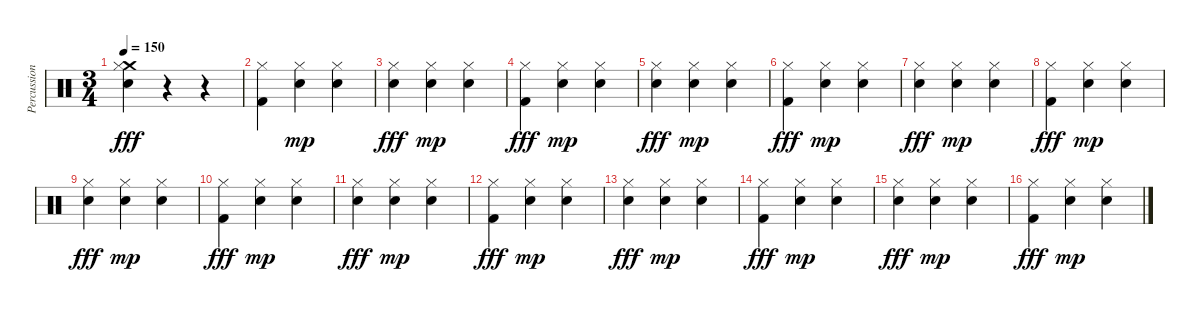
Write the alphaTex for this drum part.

\track ("Percussion" "Percussion") {instrument percussion}
\staff {score}
\articulation defaults
\ts (3 4)
\tempo 150
\clef neutral
\ks c
("Crash medium (hit)" "Hi-Hat (closed)" "Electric Snare (hit)").4{dy fff} r.4 r.4 |
("Hi-Hat (closed)" "Kick (hit) 2").4 ("Hi-Hat (closed)" "Electric Snare (hit)").4{dy mp} ("Hi-Hat (closed)" "Electric Snare (hit)").4 |
("Hi-Hat (closed)" "Electric Snare (hit)").4{dy fff} ("Hi-Hat (closed)" "Electric Snare (hit)").4{dy mp} ("Hi-Hat (closed)" "Electric Snare (hit)").4 |
("Hi-Hat (closed)" "Kick (hit) 2").4{dy fff} ("Hi-Hat (closed)" "Electric Snare (hit)").4{dy mp} ("Hi-Hat (closed)" "Electric Snare (hit)").4 |
("Hi-Hat (closed)" "Electric Snare (hit)").4{dy fff} ("Hi-Hat (closed)" "Electric Snare (hit)").4{dy mp} ("Hi-Hat (closed)" "Electric Snare (hit)").4 |
("Hi-Hat (closed)" "Kick (hit) 2").4{dy fff} ("Hi-Hat (closed)" "Electric Snare (hit)").4{dy mp} ("Hi-Hat (closed)" "Electric Snare (hit)").4 |
("Hi-Hat (closed)" "Electric Snare (hit)").4{dy fff} ("Hi-Hat (closed)" "Electric Snare (hit)").4{dy mp} ("Hi-Hat (closed)" "Electric Snare (hit)").4 |
("Hi-Hat (closed)" "Kick (hit) 2").4{dy fff} ("Hi-Hat (closed)" "Electric Snare (hit)").4{dy mp} ("Hi-Hat (closed)" "Electric Snare (hit)").4 |
("Hi-Hat (closed)" "Electric Snare (hit)").4{dy fff} ("Hi-Hat (closed)" "Electric Snare (hit)").4{dy mp} ("Hi-Hat (closed)" "Electric Snare (hit)").4 |
("Hi-Hat (closed)" "Kick (hit) 2").4{dy fff} ("Hi-Hat (closed)" "Electric Snare (hit)").4{dy mp} ("Hi-Hat (closed)" "Electric Snare (hit)").4 |
("Hi-Hat (closed)" "Electric Snare (hit)").4{dy fff} ("Hi-Hat (closed)" "Electric Snare (hit)").4{dy mp} ("Hi-Hat (closed)" "Electric Snare (hit)").4 |
("Hi-Hat (closed)" "Kick (hit) 2").4{dy fff} ("Hi-Hat (closed)" "Electric Snare (hit)").4{dy mp} ("Hi-Hat (closed)" "Electric Snare (hit)").4 |
("Hi-Hat (closed)" "Electric Snare (hit)").4{dy fff} ("Hi-Hat (closed)" "Electric Snare (hit)").4{dy mp} ("Hi-Hat (closed)" "Electric Snare (hit)").4 |
("Hi-Hat (closed)" "Kick (hit) 2").4{dy fff} ("Hi-Hat (closed)" "Electric Snare (hit)").4{dy mp} ("Hi-Hat (closed)" "Electric Snare (hit)").4 |
("Hi-Hat (closed)" "Electric Snare (hit)").4{dy fff} ("Hi-Hat (closed)" "Electric Snare (hit)").4{dy mp} ("Hi-Hat (closed)" "Electric Snare (hit)").4 |
("Hi-Hat (closed)" "Kick (hit) 2").4{dy fff} ("Hi-Hat (closed)" "Electric Snare (hit)").4{dy mp} ("Hi-Hat (closed)" "Electric Snare (hit)").4
